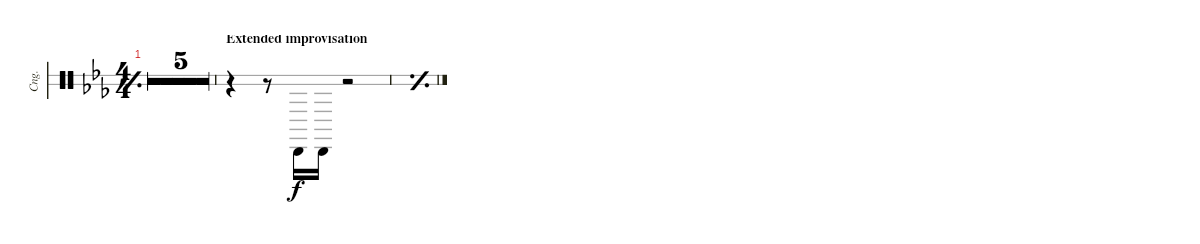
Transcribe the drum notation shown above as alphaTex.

\bracketExtendMode groupsimilarinstruments
\otherSystemsTrackNameOrientation horizontal
\defaultBarNumberDisplay FirstOfSystem
\track ("Congas" "Cng.") {multiBarRest instrument percussion}
\staff {score 2}
\articulation defaults
\ts (4 4)
\tempo 81
\clef neutral
\simile simple
\ks eb
|
|
|
|
r.1{beam Down} |
\section ("" "Extended improvisation")
r.4{beam Down} r.8{beam Down} "Conga low (hit)"{acc forcenatural}.16{beam Up} "Conga low (hit)"{acc forcenatural}.16{beam Up} r.2{beam Up} |
\simile simple
